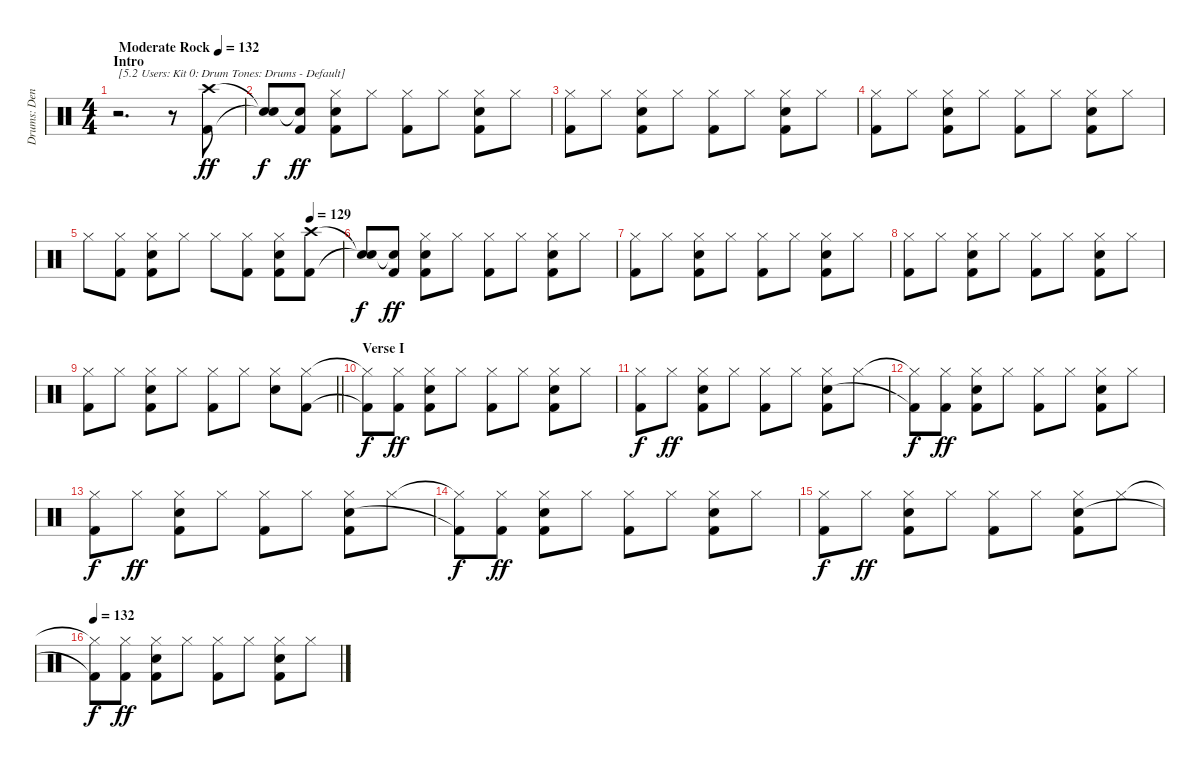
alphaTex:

\track ("Drums: Denny" "Drums: Den") {instrument percussion}
\staff {score}
\articulation defaults
\ts (4 4)
\section ("" "Intro")
\tempo (132 "Moderate Rock")
\clef neutral
\ks c
r.2{d txt "[5.2 Users: Kit 0: Drum Tones: Drums - Default]" dy ff} r.8 ("Crash high (hit)" "Kick (hit) 2").8 |
("Snare (hit)"{t} "Snare (hit)"{t}).8{dy f} ("Snare (hit)"{t} "Kick (hit) 2").8{dy ff} ("Hi-Hat (closed)" "Electric Snare (hit)" "Kick (hit) 2").8 "Hi-Hat (closed)".8 ("Hi-Hat (closed)" "Kick (hit) 2").8 "Hi-Hat (closed)".8 ("Hi-Hat (closed)" "Electric Snare (hit)" "Kick (hit) 2").8 "Hi-Hat (closed)".8 |
("Hi-Hat (closed)" "Kick (hit) 2").8 "Hi-Hat (closed)".8 ("Hi-Hat (closed)" "Electric Snare (hit)" "Kick (hit) 2").8 "Hi-Hat (closed)".8 ("Hi-Hat (closed)" "Kick (hit) 2").8 "Hi-Hat (closed)".8 ("Hi-Hat (closed)" "Electric Snare (hit)" "Kick (hit) 2").8 "Hi-Hat (closed)".8 |
("Hi-Hat (closed)" "Kick (hit) 2").8 "Hi-Hat (closed)".8 ("Hi-Hat (closed)" "Electric Snare (hit)" "Kick (hit) 2").8 "Hi-Hat (closed)".8 ("Hi-Hat (closed)" "Kick (hit) 2").8 "Hi-Hat (closed)".8 ("Hi-Hat (closed)" "Electric Snare (hit)" "Kick (hit) 2").8 "Hi-Hat (closed)".8 |
\tempo (129 0.875)
"Hi-Hat (closed)".8 ("Hi-Hat (closed)" "Kick (hit) 2").8 ("Hi-Hat (closed)" "Electric Snare (hit)" "Kick (hit) 2").8 "Hi-Hat (closed)".8 "Hi-Hat (closed)".8 ("Hi-Hat (closed)" "Kick (hit) 2").8 ("Hi-Hat (closed)" "Electric Snare (hit)" "Kick (hit) 2").8 ("Crash high (hit)" "Kick (hit) 2").8 |
("Snare (hit)"{t} "Snare (hit)"{t}).8{dy f} ("Snare (hit)"{t} "Kick (hit) 2").8{dy ff} ("Hi-Hat (closed)" "Electric Snare (hit)" "Kick (hit) 2").8 "Hi-Hat (closed)".8 ("Hi-Hat (closed)" "Kick (hit) 2").8 "Hi-Hat (closed)".8 ("Hi-Hat (closed)" "Electric Snare (hit)" "Kick (hit) 2").8 "Hi-Hat (closed)".8 |
("Hi-Hat (closed)" "Kick (hit) 2").8 "Hi-Hat (closed)".8 ("Hi-Hat (closed)" "Electric Snare (hit)" "Kick (hit) 2").8 "Hi-Hat (closed)".8 ("Hi-Hat (closed)" "Kick (hit) 2").8 "Hi-Hat (closed)".8 ("Hi-Hat (closed)" "Electric Snare (hit)" "Kick (hit) 2").8 "Hi-Hat (closed)".8 |
("Hi-Hat (closed)" "Kick (hit) 2").8 "Hi-Hat (closed)".8 ("Hi-Hat (closed)" "Electric Snare (hit)" "Kick (hit) 2").8 "Hi-Hat (closed)".8 ("Hi-Hat (closed)" "Kick (hit) 2").8 "Hi-Hat (closed)".8 ("Hi-Hat (closed)" "Electric Snare (hit)" "Kick (hit) 2").8 "Hi-Hat (closed)".8 |
\barLineRight lightlight
("Hi-Hat (closed)" "Kick (hit) 2").8 "Hi-Hat (closed)".8 ("Hi-Hat (closed)" "Electric Snare (hit)" "Kick (hit) 2").8 "Hi-Hat (closed)".8 ("Hi-Hat (closed)" "Kick (hit) 2").8 "Hi-Hat (closed)".8 ("Hi-Hat (closed)" "Electric Snare (hit)").8 ("Hi-Hat (closed)" "Kick (hit) 2").8 |
\section ("" "Verse I")
("Hi-Hat (closed)"{t} "Kick (hit) 2"{t}).8{dy f} ("Hi-Hat (closed)" "Kick (hit) 2").8{dy ff} ("Hi-Hat (closed)" "Electric Snare (hit)" "Kick (hit) 2").8 "Hi-Hat (closed)".8 ("Hi-Hat (closed)" "Kick (hit) 2").8 "Hi-Hat (closed)".8 ("Hi-Hat (closed)" "Electric Snare (hit)" "Kick (hit) 2").8 "Hi-Hat (closed)".8 |
("Hi-Hat (closed)" "Kick (hit) 2").8{dy f} "Hi-Hat (closed)".8{dy ff} ("Hi-Hat (closed)" "Electric Snare (hit)" "Kick (hit) 2").8 "Hi-Hat (closed)".8 ("Hi-Hat (closed)" "Kick (hit) 2").8 "Hi-Hat (closed)".8 ("Hi-Hat (closed)" "Electric Snare (hit)" "Kick (hit) 2").8 "Hi-Hat (closed)".8 |
("Hi-Hat (closed)"{t} "Kick (hit) 2"{t}).8{dy f} ("Hi-Hat (closed)" "Kick (hit) 2").8{dy ff} ("Hi-Hat (closed)" "Electric Snare (hit)" "Kick (hit) 2").8 "Hi-Hat (closed)".8 ("Hi-Hat (closed)" "Kick (hit) 2").8 "Hi-Hat (closed)".8 ("Hi-Hat (closed)" "Electric Snare (hit)" "Kick (hit) 2").8 "Hi-Hat (closed)".8 |
("Hi-Hat (closed)" "Kick (hit) 2").8{dy f} "Hi-Hat (closed)".8{dy ff} ("Hi-Hat (closed)" "Electric Snare (hit)" "Kick (hit) 2").8 "Hi-Hat (closed)".8 ("Hi-Hat (closed)" "Kick (hit) 2").8 "Hi-Hat (closed)".8 ("Hi-Hat (closed)" "Electric Snare (hit)" "Kick (hit) 2").8 "Hi-Hat (closed)".8 |
("Hi-Hat (closed)"{t} "Kick (hit) 2"{t}).8{dy f} ("Hi-Hat (closed)" "Kick (hit) 2").8{dy ff} ("Hi-Hat (closed)" "Electric Snare (hit)" "Kick (hit) 2").8 "Hi-Hat (closed)".8 ("Hi-Hat (closed)" "Kick (hit) 2").8 "Hi-Hat (closed)".8 ("Hi-Hat (closed)" "Electric Snare (hit)" "Kick (hit) 2").8 "Hi-Hat (closed)".8 |
("Hi-Hat (closed)" "Kick (hit) 2").8{dy f} "Hi-Hat (closed)".8{dy ff} ("Hi-Hat (closed)" "Electric Snare (hit)" "Kick (hit) 2").8 "Hi-Hat (closed)".8 ("Hi-Hat (closed)" "Kick (hit) 2").8 "Hi-Hat (closed)".8 ("Hi-Hat (closed)" "Electric Snare (hit)" "Kick (hit) 2").8 "Hi-Hat (closed)".8 |
\tempo 132
("Hi-Hat (closed)"{t} "Kick (hit) 2"{t}).8{dy f} ("Hi-Hat (closed)" "Kick (hit) 2").8{dy ff} ("Hi-Hat (closed)" "Electric Snare (hit)" "Kick (hit) 2").8 "Hi-Hat (closed)".8 ("Hi-Hat (closed)" "Kick (hit) 2").8 "Hi-Hat (closed)".8 ("Hi-Hat (closed)" "Electric Snare (hit)" "Kick (hit) 2").8 "Hi-Hat (closed)".8
